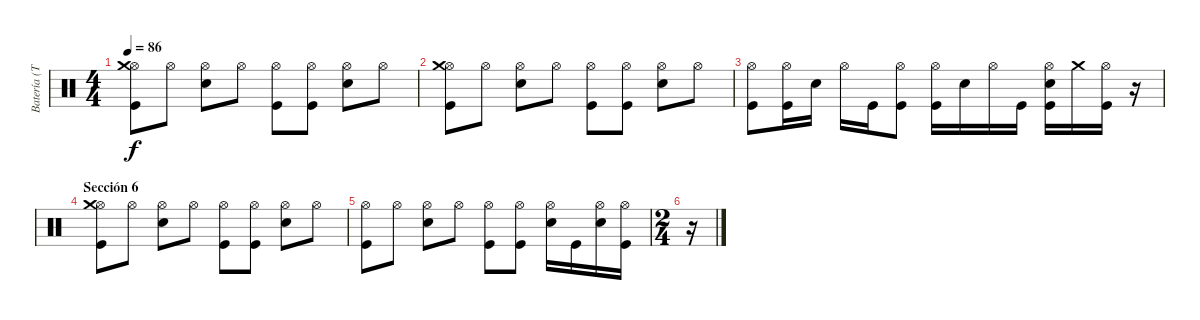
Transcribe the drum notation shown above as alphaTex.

\track ("Batería (Toño)" "Batería (T") {instrument percussion}
\staff {score}
\articulation defaults
\ts (4 4)
\tempo 86
\clef neutral
\ks c
("Hi-Hat (open)" "Crash medium (hit)" "Kick (hit)").8{dy f} "Hi-Hat (open)".8 ("Hi-Hat (open)" "Electric Snare (hit)").8 "Hi-Hat (open)".8 ("Hi-Hat (open)" "Kick (hit)").8 ("Hi-Hat (open)" "Kick (hit)").8 ("Hi-Hat (open)" "Electric Snare (hit)").8 "Hi-Hat (open)".8 |
("Hi-Hat (open)" "Crash medium (hit)" "Kick (hit)").8 "Hi-Hat (open)".8 ("Hi-Hat (open)" "Electric Snare (hit)").8 "Hi-Hat (open)".8 ("Hi-Hat (open)" "Kick (hit)").8 ("Hi-Hat (open)" "Kick (hit)").8 ("Hi-Hat (open)" "Electric Snare (hit)").8 "Hi-Hat (open)".8 |
("Hi-Hat (open)" "Kick (hit)").8 ("Hi-Hat (open)" "Kick (hit)").16 "Electric Snare (hit)".16 "Hi-Hat (open)".16 "Kick (hit)".16 ("Hi-Hat (open)" "Kick (hit)").8 ("Hi-Hat (open)" "Kick (hit)").16 "Electric Snare (hit)".16 "Hi-Hat (open)".16 "Kick (hit)".16 ("Hi-Hat (open)" "Electric Snare (hit)" "Kick (hit)").16 "Crash medium (hit)".16 ("Hi-Hat (open)" "Kick (hit)").16 r.16 |
\section ("" "Sección 6")
("Hi-Hat (open)" "Crash medium (hit)" "Kick (hit)").8 "Hi-Hat (open)".8 ("Hi-Hat (open)" "Electric Snare (hit)").8 "Hi-Hat (open)".8 ("Hi-Hat (open)" "Kick (hit)").8 ("Hi-Hat (open)" "Kick (hit)").8 ("Hi-Hat (open)" "Electric Snare (hit)").8 "Hi-Hat (open)".8 |
("Hi-Hat (open)" "Kick (hit)").8 "Hi-Hat (open)".8 ("Hi-Hat (open)" "Electric Snare (hit)").8 "Hi-Hat (open)".8 ("Hi-Hat (open)" "Kick (hit)").8 ("Hi-Hat (open)" "Kick (hit)").8 ("Hi-Hat (open)" "Electric Snare (hit)").16 "Kick (hit)".16 ("Hi-Hat (open)" "Electric Snare (hit)").16 ("Hi-Hat (open)" "Kick (hit)").16 |
\ts (2 4)
r.16{volume 1}
